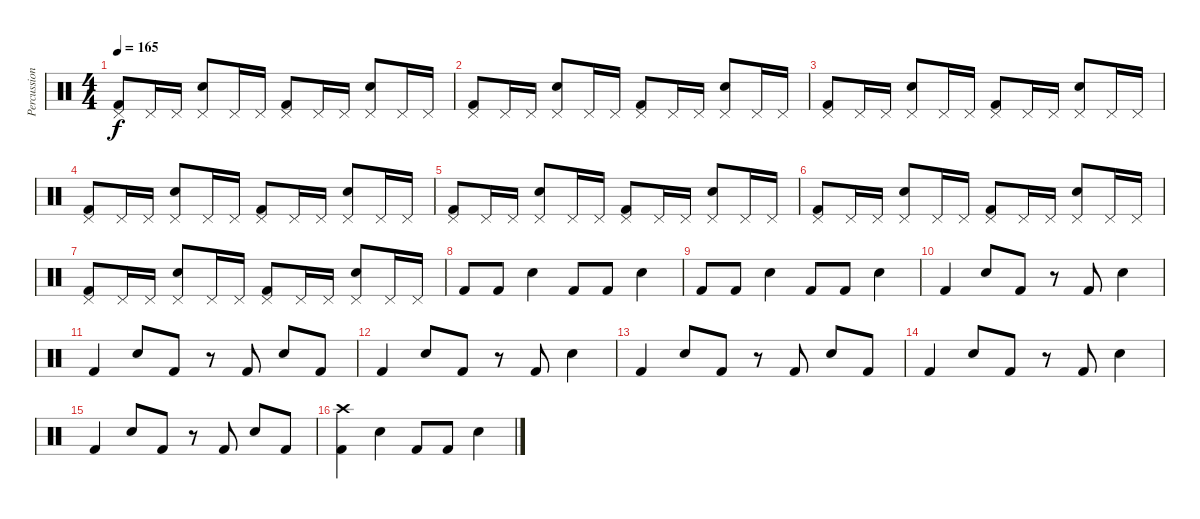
\track ("Percussion" "Percussion") {instrument percussion}
\staff {score}
\articulation defaults
\ts (4 4)
\tempo 165
\clef neutral
\ks c
("Pedal Hi-Hat (hit)" "Kick (hit) 2").8{dy f} "Pedal Hi-Hat (hit)".16 "Pedal Hi-Hat (hit)".16 ("Pedal Hi-Hat (hit)" "Snare (hit) 2").8 "Pedal Hi-Hat (hit)".16 "Pedal Hi-Hat (hit)".16 ("Pedal Hi-Hat (hit)" "Kick (hit) 2").8 "Pedal Hi-Hat (hit)".16 "Pedal Hi-Hat (hit)".16 ("Pedal Hi-Hat (hit)" "Snare (hit) 2").8 "Pedal Hi-Hat (hit)".16 "Pedal Hi-Hat (hit)".16 |
("Pedal Hi-Hat (hit)" "Kick (hit) 2").8 "Pedal Hi-Hat (hit)".16 "Pedal Hi-Hat (hit)".16 ("Pedal Hi-Hat (hit)" "Snare (hit) 2").8 "Pedal Hi-Hat (hit)".16 "Pedal Hi-Hat (hit)".16 ("Pedal Hi-Hat (hit)" "Kick (hit) 2").8 "Pedal Hi-Hat (hit)".16 "Pedal Hi-Hat (hit)".16 ("Pedal Hi-Hat (hit)" "Snare (hit) 2").8 "Pedal Hi-Hat (hit)".16 "Pedal Hi-Hat (hit)".16 |
("Pedal Hi-Hat (hit)" "Kick (hit) 2").8 "Pedal Hi-Hat (hit)".16 "Pedal Hi-Hat (hit)".16 ("Pedal Hi-Hat (hit)" "Snare (hit) 2").8 "Pedal Hi-Hat (hit)".16 "Pedal Hi-Hat (hit)".16 ("Pedal Hi-Hat (hit)" "Kick (hit) 2").8 "Pedal Hi-Hat (hit)".16 "Pedal Hi-Hat (hit)".16 ("Pedal Hi-Hat (hit)" "Snare (hit) 2").8 "Pedal Hi-Hat (hit)".16 "Pedal Hi-Hat (hit)".16 |
("Pedal Hi-Hat (hit)" "Kick (hit) 2").8 "Pedal Hi-Hat (hit)".16 "Pedal Hi-Hat (hit)".16 ("Pedal Hi-Hat (hit)" "Snare (hit) 2").8 "Pedal Hi-Hat (hit)".16 "Pedal Hi-Hat (hit)".16 ("Pedal Hi-Hat (hit)" "Kick (hit) 2").8 "Pedal Hi-Hat (hit)".16 "Pedal Hi-Hat (hit)".16 ("Pedal Hi-Hat (hit)" "Snare (hit) 2").8 "Pedal Hi-Hat (hit)".16 "Pedal Hi-Hat (hit)".16 |
("Pedal Hi-Hat (hit)" "Kick (hit) 2").8 "Pedal Hi-Hat (hit)".16 "Pedal Hi-Hat (hit)".16 ("Pedal Hi-Hat (hit)" "Snare (hit) 2").8 "Pedal Hi-Hat (hit)".16 "Pedal Hi-Hat (hit)".16 ("Pedal Hi-Hat (hit)" "Kick (hit) 2").8 "Pedal Hi-Hat (hit)".16 "Pedal Hi-Hat (hit)".16 ("Pedal Hi-Hat (hit)" "Snare (hit) 2").8 "Pedal Hi-Hat (hit)".16 "Pedal Hi-Hat (hit)".16 |
("Pedal Hi-Hat (hit)" "Kick (hit) 2").8 "Pedal Hi-Hat (hit)".16 "Pedal Hi-Hat (hit)".16 ("Pedal Hi-Hat (hit)" "Snare (hit) 2").8 "Pedal Hi-Hat (hit)".16 "Pedal Hi-Hat (hit)".16 ("Pedal Hi-Hat (hit)" "Kick (hit) 2").8 "Pedal Hi-Hat (hit)".16 "Pedal Hi-Hat (hit)".16 ("Pedal Hi-Hat (hit)" "Snare (hit) 2").8 "Pedal Hi-Hat (hit)".16 "Pedal Hi-Hat (hit)".16 |
("Pedal Hi-Hat (hit)" "Kick (hit) 2").8 "Pedal Hi-Hat (hit)".16 "Pedal Hi-Hat (hit)".16 ("Pedal Hi-Hat (hit)" "Snare (hit) 2").8 "Pedal Hi-Hat (hit)".16 "Pedal Hi-Hat (hit)".16 ("Pedal Hi-Hat (hit)" "Kick (hit) 2").8 "Pedal Hi-Hat (hit)".16 "Pedal Hi-Hat (hit)".16 ("Pedal Hi-Hat (hit)" "Snare (hit) 2").8 "Pedal Hi-Hat (hit)".16 "Pedal Hi-Hat (hit)".16 |
"Kick (hit) 2".8 "Kick (hit) 2".8 "Snare (hit) 2".4 "Kick (hit) 2".8 "Kick (hit) 2".8 "Snare (hit) 2".4 |
"Kick (hit) 2".8 "Kick (hit) 2".8 "Snare (hit) 2".4 "Kick (hit) 2".8 "Kick (hit) 2".8 "Snare (hit) 2".4 |
"Kick (hit) 2".4 "Snare (hit) 2".8 "Kick (hit) 2".8 r.8 "Kick (hit) 2".8 "Snare (hit) 2".4 |
"Kick (hit) 2".4 "Snare (hit) 2".8 "Kick (hit) 2".8 r.8 "Kick (hit) 2".8 "Snare (hit) 2".8 "Kick (hit) 2".8 |
"Kick (hit) 2".4 "Snare (hit) 2".8 "Kick (hit) 2".8 r.8 "Kick (hit) 2".8 "Snare (hit) 2".4 |
"Kick (hit) 2".4 "Snare (hit) 2".8 "Kick (hit) 2".8 r.8 "Kick (hit) 2".8 "Snare (hit) 2".8 "Kick (hit) 2".8 |
"Kick (hit) 2".4 "Snare (hit) 2".8 "Kick (hit) 2".8 r.8 "Kick (hit) 2".8 "Snare (hit) 2".4 |
"Kick (hit) 2".4 "Snare (hit) 2".8 "Kick (hit) 2".8 r.8 "Kick (hit) 2".8 "Snare (hit) 2".8 "Kick (hit) 2".8 |
("Kick (hit) 2" "Crash high (hit)").4 "Snare (hit) 2".4 "Kick (hit) 2".8 "Kick (hit) 2".8 "Snare (hit) 2".4
